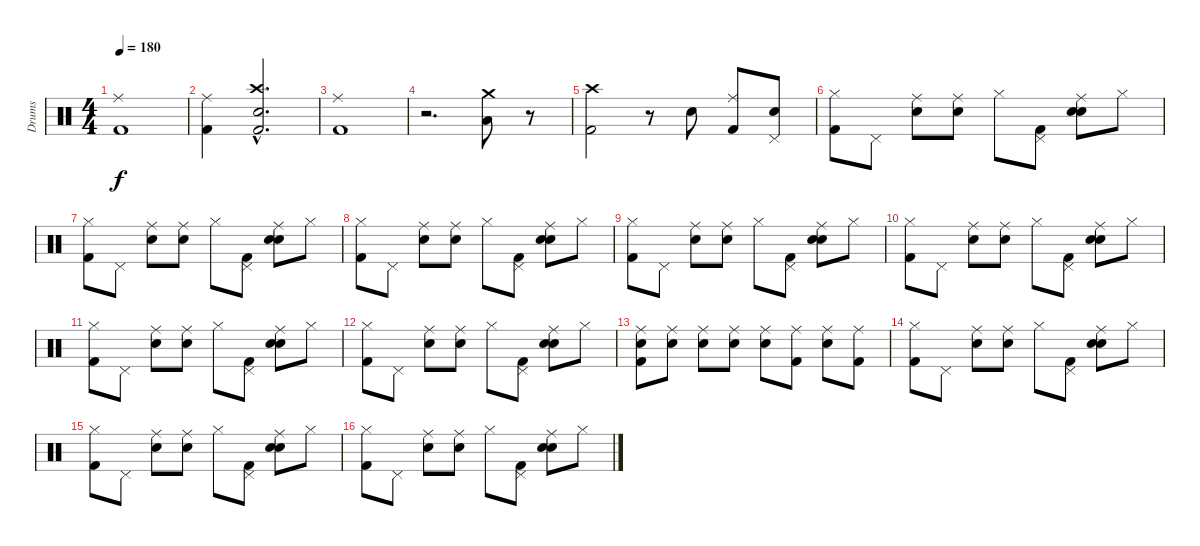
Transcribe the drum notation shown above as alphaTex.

\track ("Drums" "Drums") {instrument percussion}
\staff {score}
\articulation defaults
\ts (4 4)
\tempo 180
\clef neutral
\ks c
("Ride (middle)" "Kick (hit) 2").1{dy f} |
("Ride (middle)" "Kick (hit) 2").4 ("Crash high (hit)"{hac} "Snare (hit) 2"{hac} "Kick (hit) 2"{hac}).2{d} |
("Ride (middle)" "Kick (hit) 2").1 |
r.2{d} ("Crash medium (hit)" "Low Tom (hit)").8 r.8 |
("Crash high (hit)" "Kick (hit) 2").2 r.8 "Snare (hit) 2".8 ("Ride (middle)" "Kick (hit) 2").8 ("Pedal Hi-Hat (hit)" "Snare (hit) 2").8 |
("Hi-Hat (closed)" "Kick (hit) 2").8 "Pedal Hi-Hat (hit)".8 ("Ride (middle)" "Snare (hit) 2").8 ("Ride (middle)" "Snare (hit) 2").8 "Hi-Hat (closed)".8 ("Pedal Hi-Hat (hit)" "Kick (hit) 2").8 ("Hand Clap (hit)" "Ride (middle)" "Snare (hit) 2").8 "Hi-Hat (closed)".8 |
("Hi-Hat (closed)" "Kick (hit) 2").8 "Pedal Hi-Hat (hit)".8 ("Ride (middle)" "Snare (hit) 2").8 ("Ride (middle)" "Snare (hit) 2").8 "Hi-Hat (closed)".8 ("Pedal Hi-Hat (hit)" "Kick (hit) 2").8 ("Hand Clap (hit)" "Ride (middle)" "Snare (hit) 2").8 "Hi-Hat (closed)".8 |
("Hi-Hat (closed)" "Kick (hit) 2").8 "Pedal Hi-Hat (hit)".8 ("Ride (middle)" "Snare (hit) 2").8 ("Ride (middle)" "Snare (hit) 2").8 "Hi-Hat (closed)".8 ("Pedal Hi-Hat (hit)" "Kick (hit) 2").8 ("Hand Clap (hit)" "Ride (middle)" "Snare (hit) 2").8 "Hi-Hat (closed)".8 |
("Hi-Hat (closed)" "Kick (hit) 2").8 "Pedal Hi-Hat (hit)".8 ("Ride (middle)" "Snare (hit) 2").8 ("Ride (middle)" "Snare (hit) 2").8 "Hi-Hat (closed)".8 ("Pedal Hi-Hat (hit)" "Kick (hit) 2").8 ("Hand Clap (hit)" "Ride (middle)" "Snare (hit) 2").8 "Hi-Hat (closed)".8 |
("Hi-Hat (closed)" "Kick (hit) 2").8 "Pedal Hi-Hat (hit)".8 ("Ride (middle)" "Snare (hit) 2").8 ("Ride (middle)" "Snare (hit) 2").8 "Hi-Hat (closed)".8 ("Pedal Hi-Hat (hit)" "Kick (hit) 2").8 ("Hand Clap (hit)" "Ride (middle)" "Snare (hit) 2").8 "Hi-Hat (closed)".8 |
("Hi-Hat (closed)" "Kick (hit) 2").8 "Pedal Hi-Hat (hit)".8 ("Ride (middle)" "Snare (hit) 2").8 ("Ride (middle)" "Snare (hit) 2").8 "Hi-Hat (closed)".8 ("Pedal Hi-Hat (hit)" "Kick (hit) 2").8 ("Hand Clap (hit)" "Ride (middle)" "Snare (hit) 2").8 "Hi-Hat (closed)".8 |
("Hi-Hat (closed)" "Kick (hit) 2").8 "Pedal Hi-Hat (hit)".8 ("Ride (middle)" "Snare (hit) 2").8 ("Ride (middle)" "Snare (hit) 2").8 "Hi-Hat (closed)".8 ("Pedal Hi-Hat (hit)" "Kick (hit) 2").8 ("Hand Clap (hit)" "Ride (middle)" "Snare (hit) 2").8 "Hi-Hat (closed)".8 |
("Ride (middle)" "Electric Snare (hit)" "Kick (hit) 2").8 ("Ride (middle)" "Electric Snare (hit)").8 ("Ride (middle)" "Electric Snare (hit)").8 ("Ride (middle)" "Electric Snare (hit)").8 ("Ride (middle)" "Electric Snare (hit)").8 ("Ride (middle)" "Kick (hit) 2").8 ("Ride (middle)" "Electric Snare (hit)").8 ("Ride (middle)" "Kick (hit) 2").8 |
("Hi-Hat (closed)" "Kick (hit) 2").8 "Pedal Hi-Hat (hit)".8 ("Ride (middle)" "Snare (hit) 2").8 ("Ride (middle)" "Snare (hit) 2").8 "Hi-Hat (closed)".8 ("Pedal Hi-Hat (hit)" "Kick (hit) 2").8 ("Hand Clap (hit)" "Ride (middle)" "Snare (hit) 2").8 "Hi-Hat (closed)".8 |
("Hi-Hat (closed)" "Kick (hit) 2").8 "Pedal Hi-Hat (hit)".8 ("Ride (middle)" "Snare (hit) 2").8 ("Ride (middle)" "Snare (hit) 2").8 "Hi-Hat (closed)".8 ("Pedal Hi-Hat (hit)" "Kick (hit) 2").8 ("Hand Clap (hit)" "Ride (middle)" "Snare (hit) 2").8 "Hi-Hat (closed)".8 |
("Hi-Hat (closed)" "Kick (hit) 2").8 "Pedal Hi-Hat (hit)".8 ("Ride (middle)" "Snare (hit) 2").8 ("Ride (middle)" "Snare (hit) 2").8 "Hi-Hat (closed)".8 ("Pedal Hi-Hat (hit)" "Kick (hit) 2").8 ("Hand Clap (hit)" "Ride (middle)" "Snare (hit) 2").8 "Hi-Hat (closed)".8
